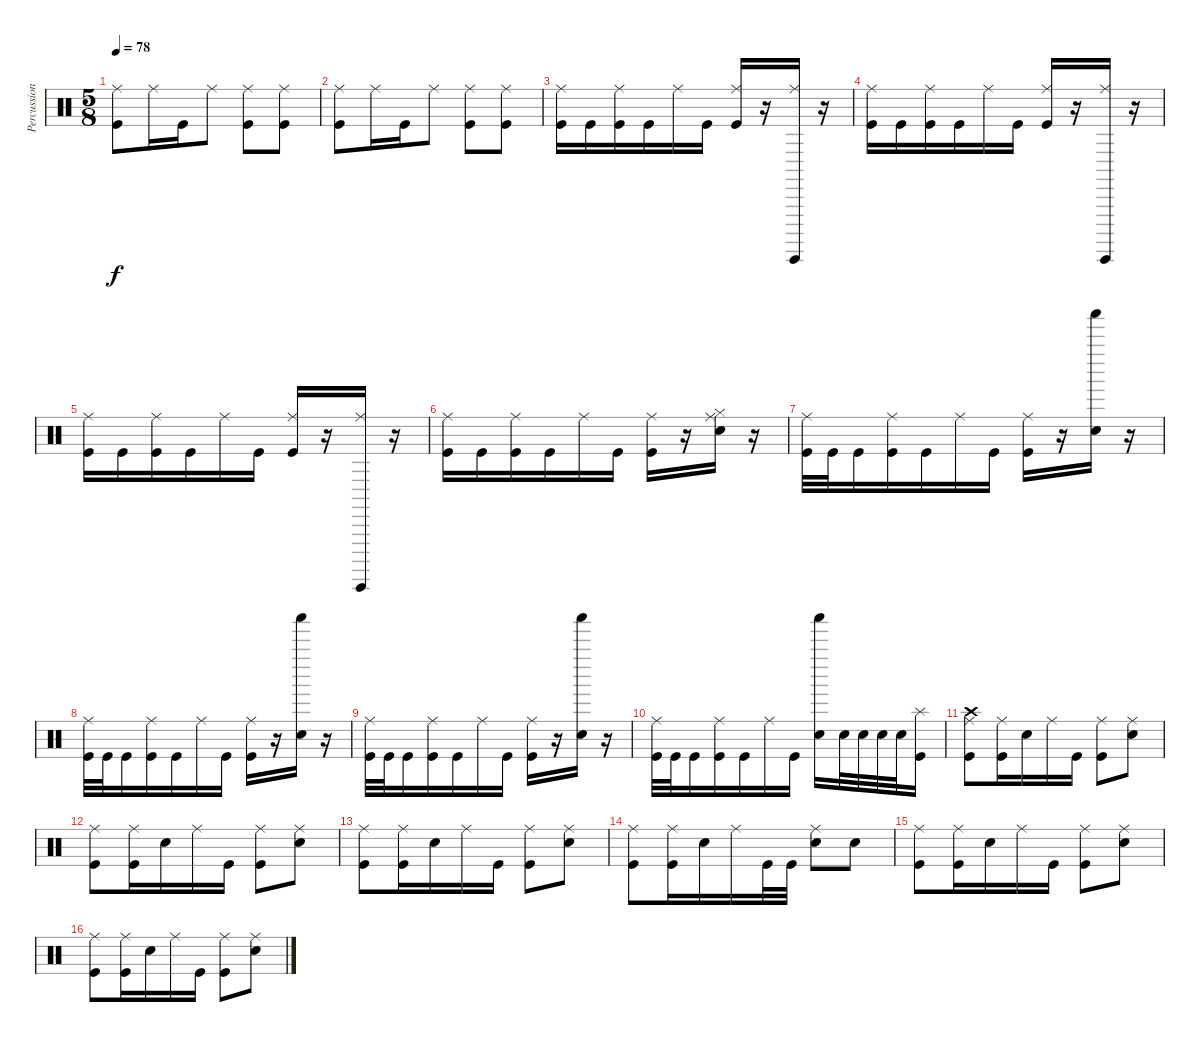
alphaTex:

\track ("Percussions" "Percussion") {instrument percussion}
\staff {score}
\articulation defaults
\ts (5 8)
\tempo 78
\clef neutral
\ks c
("Ride (middle)" "Kick (hit)").8{dy f} "Ride (middle)".16 "Kick (hit)".16 "Ride (middle)".8 ("Ride (middle)" "Kick (hit)").8 ("Ride (middle)" "Kick (hit)").8 |
("Ride (middle)" "Kick (hit)").8 "Ride (middle)".16 "Kick (hit)".16 "Ride (middle)".8 ("Ride (middle)" "Kick (hit)").8 ("Ride (middle)" "Kick (hit)").8 |
("Ride (middle)" "Kick (hit)").16 "Kick (hit)".16 ("Ride (middle)" "Kick (hit)").16 "Kick (hit)".16 "Ride (middle)".16 "Kick (hit)".16 ("Ride (middle)" "Kick (hit)").16 r.16 ("Ride (middle)" "Guiro (hit)").16 r.16 |
("Ride (middle)" "Kick (hit)").16 "Kick (hit)".16 ("Ride (middle)" "Kick (hit)").16 "Kick (hit)".16 "Ride (middle)".16 "Kick (hit)".16 ("Ride (middle)" "Kick (hit)").16 r.16 ("Ride (middle)" "Guiro (hit)").16 r.16 |
("Ride (middle)" "Kick (hit)").16 "Kick (hit)".16 ("Ride (middle)" "Kick (hit)").16 "Kick (hit)".16 "Ride (middle)".16 "Kick (hit)".16 ("Ride (middle)" "Kick (hit)").16 r.16 ("Ride (middle)" "Guiro (hit)").16 r.16 |
("Ride (middle)" "Kick (hit)").16 "Kick (hit)".16 ("Ride (middle)" "Kick (hit)").16 "Kick (hit)".16 "Ride (middle)".16 "Kick (hit)".16 ("Ride (middle)" "Kick (hit)").16 r.16 ("Ride (middle)" "Hi-Hat (closed)" "Snare (hit) 2").16 r.16 |
("Ride (middle)" "Kick (hit)").32 "Kick (hit)".32 "Kick (hit)".16 ("Ride (middle)" "Kick (hit)").16 "Kick (hit)".16 "Ride (middle)".16 "Kick (hit)".16 ("Ride (middle)" "Kick (hit)").16 r.16 ("Shaker (hit)" "Snare (hit) 2").16 r.16 |
("Ride (middle)" "Kick (hit)").32 "Kick (hit)".32 "Kick (hit)".16 ("Ride (middle)" "Kick (hit)").16 "Kick (hit)".16 "Ride (middle)".16 "Kick (hit)".16 ("Ride (middle)" "Kick (hit)").16 r.16 ("Shaker (hit)" "Snare (hit) 2").16 r.16 |
("Ride (middle)" "Kick (hit)").32 "Kick (hit)".32 "Kick (hit)".16 ("Ride (middle)" "Kick (hit)").16 "Kick (hit)".16 "Ride (middle)".16 "Kick (hit)".16 ("Ride (middle)" "Kick (hit)").16 r.16 ("Shaker (hit)" "Snare (hit) 2").16 r.16 |
("Ride (middle)" "Kick (hit)").32 "Kick (hit)".32 "Kick (hit)".16 ("Ride (middle)" "Kick (hit)").16 "Kick (hit)".16 "Ride (middle)".16 "Kick (hit)".16 ("Shaker (hit)" "Snare (hit) 2").16 "Snare (hit) 2".32 "Snare (hit) 2".32 "Snare (hit) 2".32 "Snare (hit) 2".32 ("Splash (hit)" "Kick (hit)").16 |
("Crash high (hit)" "Ride (middle)" "Kick (hit)").8 ("Ride (middle)" "Kick (hit)").16 "Snare (hit) 2".16 "Ride (middle)".16 "Kick (hit)".16 ("Ride (middle)" "Kick (hit)").8 ("Ride (middle)" "Snare (hit) 2").8 |
("Ride (middle)" "Kick (hit)").8 ("Ride (middle)" "Kick (hit)").16 "Snare (hit) 2".16 "Ride (middle)".16 "Kick (hit)".16 ("Ride (middle)" "Kick (hit)").8 ("Ride (middle)" "Snare (hit) 2").8 |
("Ride (middle)" "Kick (hit)").8 ("Ride (middle)" "Kick (hit)").16 "Snare (hit) 2".16 "Ride (middle)".16 "Kick (hit)".16 ("Ride (middle)" "Kick (hit)").8 ("Ride (middle)" "Snare (hit) 2").8 |
("Ride (middle)" "Kick (hit)").8 ("Ride (middle)" "Kick (hit)").16 "Snare (hit) 2".16 "Ride (middle)".16 "Kick (hit)".32 "Kick (hit)".32 ("Ride (middle)" "Snare (hit) 2").8 "Snare (hit) 2".8 |
("Ride (middle)" "Kick (hit)").8 ("Ride (middle)" "Kick (hit)").16 "Snare (hit) 2".16 "Ride (middle)".16 "Kick (hit)".16 ("Ride (middle)" "Kick (hit)").8 ("Ride (middle)" "Snare (hit) 2").8 |
("Ride (middle)" "Kick (hit)").8 ("Ride (middle)" "Kick (hit)").16 "Snare (hit) 2".16 "Ride (middle)".16 "Kick (hit)".16 ("Ride (middle)" "Kick (hit)").8 ("Ride (middle)" "Snare (hit) 2").8
